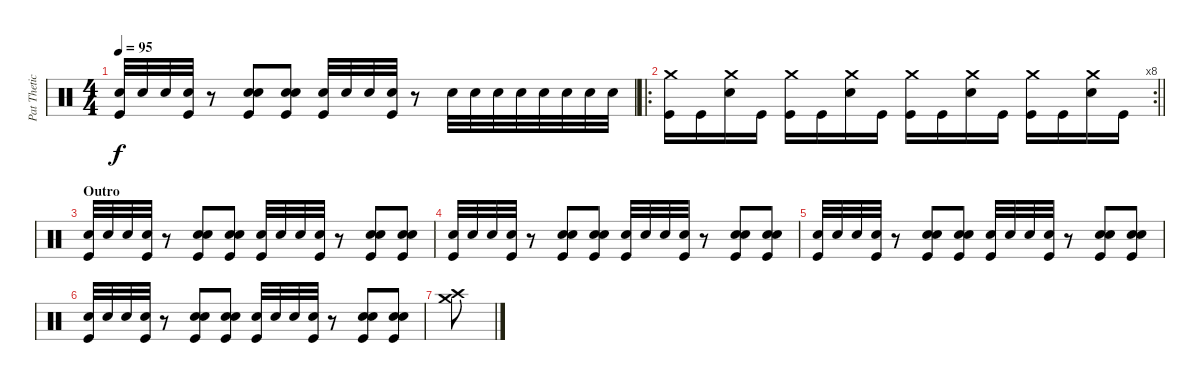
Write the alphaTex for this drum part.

\track ("Pat Thetic" "Pat Thetic") {instrument percussion}
\staff {score}
\articulation defaults
\ts (4 4)
\tempo 95
\clef neutral
\ks c
("Electric Snare (hit)" "Kick (hit)").32{dy f} "Electric Snare (hit)".32 "Electric Snare (hit)".32 ("Electric Snare (hit)" "Kick (hit)").32 r.8 ("Electric Snare (hit)" "Electric Snare (hit)" "Kick (hit)").8 ("Electric Snare (hit)" "Electric Snare (hit)" "Kick (hit)").8 ("Electric Snare (hit)" "Kick (hit)").32 "Electric Snare (hit)".32 "Electric Snare (hit)".32 ("Electric Snare (hit)" "Kick (hit)").32 r.8 "Electric Snare (hit)".32 "Electric Snare (hit)".32 "Electric Snare (hit)".32 "Electric Snare (hit)".32 "Electric Snare (hit)".32 "Electric Snare (hit)".32 "Electric Snare (hit)".32 "Electric Snare (hit)".32 |
\ro
\rc 8
\barLineRight lightlight
("Crash medium (hit)" "Kick (hit)").16 "Kick (hit)".16 ("Crash medium (hit)" "Electric Snare (hit)").16 "Kick (hit)".16 ("Crash medium (hit)" "Kick (hit)").16 "Kick (hit)".16 ("Crash medium (hit)" "Electric Snare (hit)").16 "Kick (hit)".16 ("Crash medium (hit)" "Kick (hit)").16 "Kick (hit)".16 ("Crash medium (hit)" "Electric Snare (hit)").16 "Kick (hit)".16 ("Crash medium (hit)" "Kick (hit)").16 "Kick (hit)".16 ("Crash medium (hit)" "Electric Snare (hit)").16 "Kick (hit)".16 |
\section ("" "Outro")
("Electric Snare (hit)" "Kick (hit)").32 "Electric Snare (hit)".32 "Electric Snare (hit)".32 ("Electric Snare (hit)" "Kick (hit)").32 r.8 ("Electric Snare (hit)" "Electric Snare (hit)" "Kick (hit)").8 ("Electric Snare (hit)" "Electric Snare (hit)" "Kick (hit)").8 ("Electric Snare (hit)" "Kick (hit)").32 "Electric Snare (hit)".32 "Electric Snare (hit)".32 ("Electric Snare (hit)" "Kick (hit)").32 r.8 ("Electric Snare (hit)" "Electric Snare (hit)" "Kick (hit)").8 ("Electric Snare (hit)" "Electric Snare (hit)" "Kick (hit)").8 |
("Electric Snare (hit)" "Kick (hit)").32 "Electric Snare (hit)".32 "Electric Snare (hit)".32 ("Electric Snare (hit)" "Kick (hit)").32 r.8 ("Electric Snare (hit)" "Electric Snare (hit)" "Kick (hit)").8 ("Electric Snare (hit)" "Electric Snare (hit)" "Kick (hit)").8 ("Electric Snare (hit)" "Kick (hit)").32 "Electric Snare (hit)".32 "Electric Snare (hit)".32 ("Electric Snare (hit)" "Kick (hit)").32 r.8 ("Electric Snare (hit)" "Electric Snare (hit)" "Kick (hit)").8 ("Electric Snare (hit)" "Electric Snare (hit)" "Kick (hit)").8 |
("Electric Snare (hit)" "Kick (hit)").32 "Electric Snare (hit)".32 "Electric Snare (hit)".32 ("Electric Snare (hit)" "Kick (hit)").32 r.8 ("Electric Snare (hit)" "Electric Snare (hit)" "Kick (hit)").8 ("Electric Snare (hit)" "Electric Snare (hit)" "Kick (hit)").8 ("Electric Snare (hit)" "Kick (hit)").32 "Electric Snare (hit)".32 "Electric Snare (hit)".32 ("Electric Snare (hit)" "Kick (hit)").32 r.8 ("Electric Snare (hit)" "Electric Snare (hit)" "Kick (hit)").8 ("Electric Snare (hit)" "Electric Snare (hit)" "Kick (hit)").8 |
("Electric Snare (hit)" "Kick (hit)").32 "Electric Snare (hit)".32 "Electric Snare (hit)".32 ("Electric Snare (hit)" "Kick (hit)").32 r.8 ("Electric Snare (hit)" "Electric Snare (hit)" "Kick (hit)").8 ("Electric Snare (hit)" "Electric Snare (hit)" "Kick (hit)").8 ("Electric Snare (hit)" "Kick (hit)").32 "Electric Snare (hit)".32 "Electric Snare (hit)".32 ("Electric Snare (hit)" "Kick (hit)").32 r.8 ("Electric Snare (hit)" "Electric Snare (hit)" "Kick (hit)").8 ("Electric Snare (hit)" "Electric Snare (hit)" "Kick (hit)").8 |
("Crash high (hit)" "Crash medium (hit)").8
